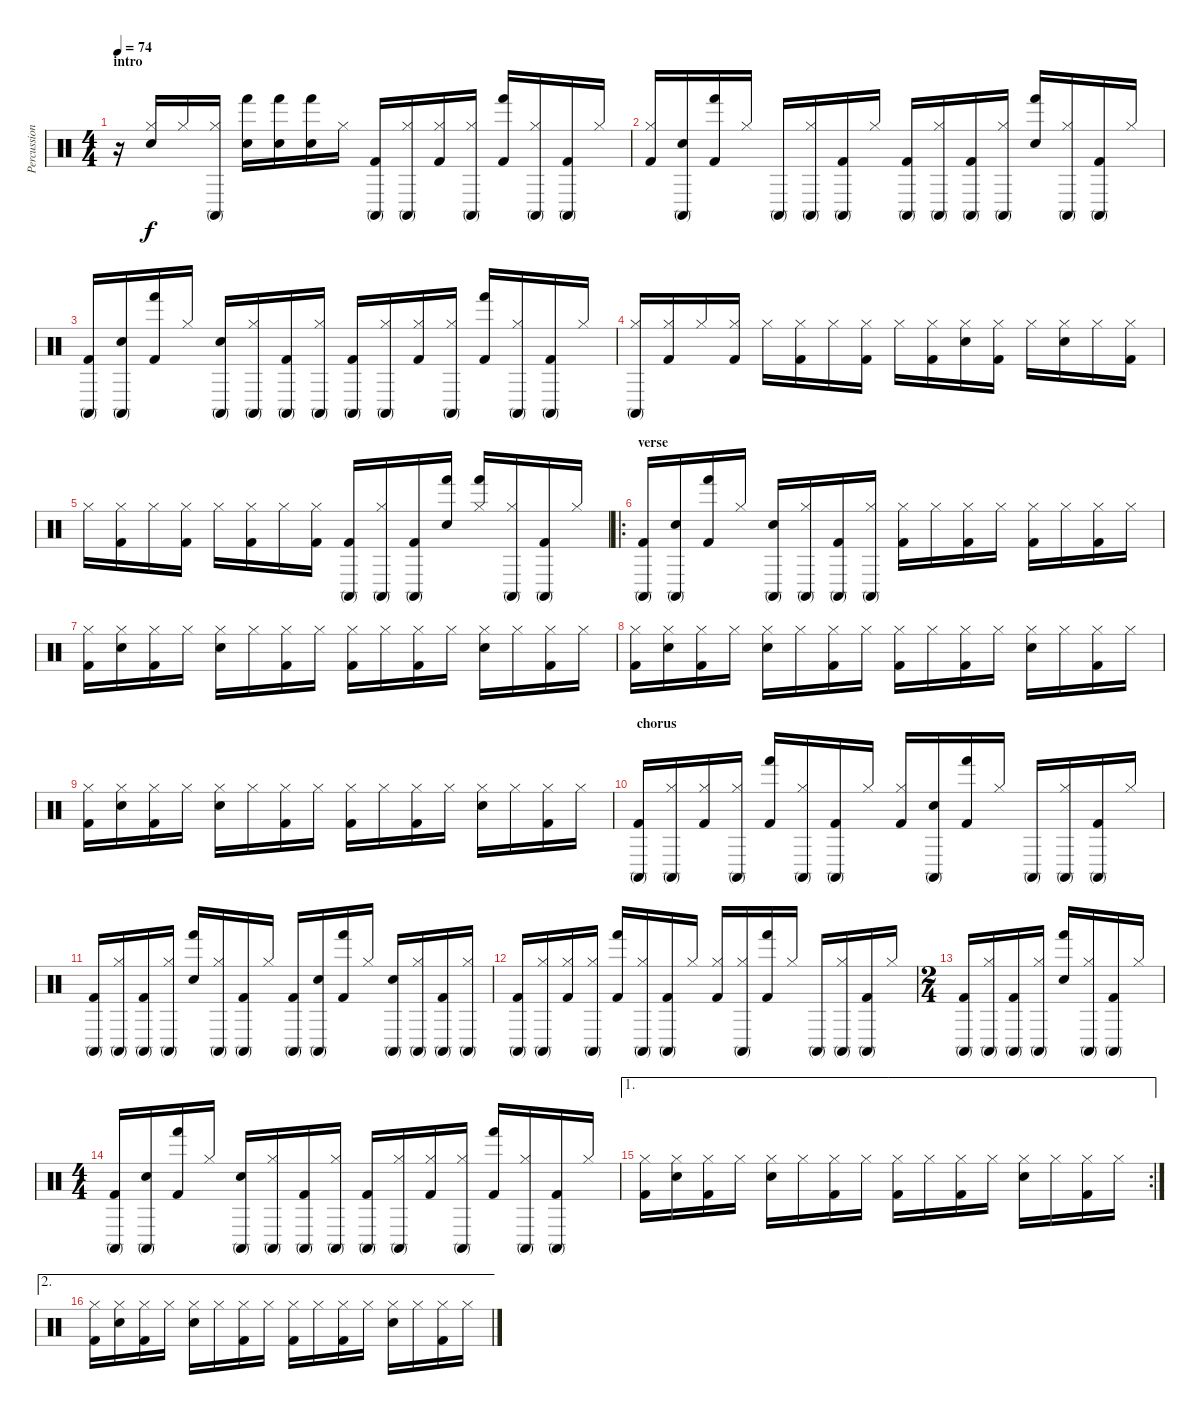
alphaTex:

\track ("Percussions" "Percussion") {instrument percussion}
\staff {score}
\articulation defaults
\ts (4 4)
\section ("" "intro")
\tempo 74
\clef neutral
\ks c
r.16{dy f} ("Hi-Hat (closed)" "Snare (hit) 2").16 "Hi-Hat (closed)".16 ("Hi-Hat (closed)" "Conga high (mute)").16 ("Hand (hit)" "Snare (hit) 2").16 ("Hand (hit)" "Snare (hit) 2").16 ("Hand (hit)" "Snare (hit) 2").16 "Hi-Hat (closed)".16 ("Conga high (mute)" "Kick (hit) 2").16 ("Hi-Hat (closed)" "Conga high (mute)").16 ("Hi-Hat (closed)" "Kick (hit) 2").16 ("Hi-Hat (closed)" "Conga high (mute)").16 ("Hand (hit)" "Kick (hit) 2").16 ("Hi-Hat (closed)" "Conga high (mute)").16 ("Conga high (mute)" "Kick (hit) 2").16 "Hi-Hat (closed)".16 |
("Hi-Hat (closed)" "Kick (hit) 2").16 ("Conga high (mute)" "Snare (hit) 2").16 ("Hand (hit)" "Kick (hit) 2").16 "Hi-Hat (closed)".16 "Conga high (mute)".16 ("Conga high (mute)" "Hi-Hat (closed)").16 ("Conga high (mute)" "Kick (hit) 2").16 "Hi-Hat (closed)".16 ("Conga high (mute)" "Kick (hit) 2").16 ("Hi-Hat (closed)" "Conga high (mute)").16 ("Conga high (mute)" "Kick (hit) 2").16 ("Conga high (mute)" "Hi-Hat (closed)").16 ("Hand (hit)" "Snare (hit) 2").16 ("Conga high (mute)" "Hi-Hat (closed)").16 ("Conga high (mute)" "Kick (hit) 2").16 "Hi-Hat (closed)".16 |
("Conga high (mute)" "Kick (hit) 2").16 ("Conga high (mute)" "Snare (hit) 2").16 ("Hand (hit)" "Kick (hit) 2").16 "Hi-Hat (closed)".16 ("Conga high (mute)" "Snare (hit) 2").16 ("Conga high (mute)" "Hi-Hat (closed)").16 ("Conga high (mute)" "Kick (hit) 2").16 ("Hi-Hat (closed)" "Conga high (mute)").16 ("Conga high (mute)" "Kick (hit) 2").16 ("Conga high (mute)" "Hi-Hat (closed)").16 ("Hi-Hat (closed)" "Kick (hit) 2").16 ("Conga high (mute)" "Hi-Hat (closed)").16 ("Hand (hit)" "Kick (hit) 2").16 ("Conga high (mute)" "Hi-Hat (closed)").16 ("Conga high (mute)" "Kick (hit) 2").16 "Hi-Hat (closed)".16 |
("Conga high (mute)" "Hi-Hat (closed)").16 ("Hi-Hat (closed)" "Kick (hit) 2").16 "Hi-Hat (closed)".16 ("Hi-Hat (closed)" "Kick (hit) 2").16 "Hi-Hat (closed)".16 ("Hi-Hat (closed)" "Kick (hit) 2").16 "Hi-Hat (closed)".16 ("Hi-Hat (closed)" "Kick (hit) 2").16 "Hi-Hat (closed)".16 ("Hi-Hat (closed)" "Kick (hit) 2").16 ("Hi-Hat (closed)" "Snare (hit) 2").16 ("Hi-Hat (closed)" "Kick (hit) 2").16 "Hi-Hat (closed)".16 ("Hi-Hat (closed)" "Snare (hit) 2").16 "Hi-Hat (closed)".16 ("Hi-Hat (closed)" "Kick (hit) 2").16 |
"Hi-Hat (closed)".16 ("Hi-Hat (closed)" "Kick (hit) 2").16 "Hi-Hat (closed)".16 ("Hi-Hat (closed)" "Kick (hit) 2").16 "Hi-Hat (closed)".16 ("Hi-Hat (closed)" "Kick (hit) 2").16 "Hi-Hat (closed)".16 ("Hi-Hat (closed)" "Kick (hit) 2").16 ("Conga high (mute)" "Kick (hit) 2").16 ("Conga high (mute)" "Hi-Hat (closed)").16 ("Conga high (mute)" "Kick (hit) 2").16 ("Hand (hit)" "Snare (hit) 2").16 ("Hand (hit)" "Hi-Hat (closed)").16 ("Conga high (mute)" "Hi-Hat (closed)").16 ("Conga high (mute)" "Kick (hit) 2").16 "Hi-Hat (closed)".16 |
\ro
\section ("" "verse")
("Conga high (mute)" "Kick (hit) 2").16 ("Conga high (mute)" "Snare (hit) 2").16 ("Hand (hit)" "Kick (hit) 2").16 "Hi-Hat (closed)".16 ("Conga high (mute)" "Snare (hit) 2").16 ("Hi-Hat (closed)" "Conga high (mute)").16 ("Conga high (mute)" "Kick (hit) 2").16 ("Conga high (mute)" "Hi-Hat (closed)").16 ("Hi-Hat (closed)" "Kick (hit) 2").16 "Hi-Hat (closed)".16 ("Hi-Hat (closed)" "Kick (hit) 2").16 "Hi-Hat (closed)".16 ("Hi-Hat (closed)" "Kick (hit) 2").16 "Hi-Hat (closed)".16 ("Hi-Hat (closed)" "Kick (hit) 2").16 "Hi-Hat (closed)".16 |
("Hi-Hat (closed)" "Kick (hit) 2").16 ("Hi-Hat (closed)" "Snare (hit) 2").16 ("Hi-Hat (closed)" "Kick (hit) 2").16 "Hi-Hat (closed)".16 ("Hi-Hat (closed)" "Snare (hit) 2").16 "Hi-Hat (closed)".16 ("Hi-Hat (closed)" "Kick (hit) 2").16 "Hi-Hat (closed)".16 ("Hi-Hat (closed)" "Kick (hit) 2").16 "Hi-Hat (closed)".16 ("Hi-Hat (closed)" "Kick (hit) 2").16 "Hi-Hat (closed)".16 ("Hi-Hat (closed)" "Snare (hit) 2").16 "Hi-Hat (closed)".16 ("Hi-Hat (closed)" "Kick (hit) 2").16 "Hi-Hat (closed)".16 |
("Hi-Hat (closed)" "Kick (hit) 2").16 ("Hi-Hat (closed)" "Snare (hit) 2").16 ("Hi-Hat (closed)" "Kick (hit) 2").16 "Hi-Hat (closed)".16 ("Hi-Hat (closed)" "Snare (hit) 2").16 "Hi-Hat (closed)".16 ("Hi-Hat (closed)" "Kick (hit) 2").16 "Hi-Hat (closed)".16 ("Hi-Hat (closed)" "Kick (hit) 2").16 "Hi-Hat (closed)".16 ("Hi-Hat (closed)" "Kick (hit) 2").16 "Hi-Hat (closed)".16 ("Hi-Hat (closed)" "Snare (hit) 2").16 "Hi-Hat (closed)".16 ("Hi-Hat (closed)" "Kick (hit) 2").16 "Hi-Hat (closed)".16 |
("Hi-Hat (closed)" "Kick (hit) 2").16 ("Hi-Hat (closed)" "Snare (hit) 2").16 ("Hi-Hat (closed)" "Kick (hit) 2").16 "Hi-Hat (closed)".16 ("Hi-Hat (closed)" "Snare (hit) 2").16 "Hi-Hat (closed)".16 ("Hi-Hat (closed)" "Kick (hit) 2").16 "Hi-Hat (closed)".16 ("Hi-Hat (closed)" "Kick (hit) 2").16 "Hi-Hat (closed)".16 ("Hi-Hat (closed)" "Kick (hit) 2").16 "Hi-Hat (closed)".16 ("Hi-Hat (closed)" "Snare (hit) 2").16 "Hi-Hat (closed)".16 ("Hi-Hat (closed)" "Kick (hit) 2").16 "Hi-Hat (closed)".16 |
\section ("" " chorus")
("Conga high (mute)" "Kick (hit) 2").16 ("Conga high (mute)" "Hi-Hat (closed)").16 ("Hi-Hat (closed)" "Kick (hit) 2").16 ("Conga high (mute)" "Hi-Hat (closed)").16 ("Hand (hit)" "Kick (hit) 2").16 ("Conga high (mute)" "Hi-Hat (closed)").16 ("Conga high (mute)" "Kick (hit) 2").16 "Hi-Hat (closed)".16 ("Hi-Hat (closed)" "Kick (hit) 2").16 ("Conga high (mute)" "Snare (hit) 2").16 ("Hand (hit)" "Kick (hit) 2").16 "Hi-Hat (closed)".16 "Conga high (mute)".16 ("Conga high (mute)" "Hi-Hat (closed)").16 ("Conga high (mute)" "Kick (hit) 2").16 "Hi-Hat (closed)".16 |
("Conga high (mute)" "Kick (hit) 2").16 ("Conga high (mute)" "Hi-Hat (closed)").16 ("Conga high (mute)" "Kick (hit) 2").16 ("Conga high (mute)" "Hi-Hat (closed)").16 ("Hand (hit)" "Snare (hit) 2").16 ("Conga high (mute)" "Hi-Hat (closed)").16 ("Conga high (mute)" "Kick (hit) 2").16 "Hi-Hat (closed)".16 ("Conga high (mute)" "Kick (hit) 2").16 ("Conga high (mute)" "Snare (hit) 2").16 ("Hand (hit)" "Kick (hit) 2").16 "Hi-Hat (closed)".16 ("Conga high (mute)" "Snare (hit) 2").16 ("Conga high (mute)" "Hi-Hat (closed)").16 ("Conga high (mute)" "Kick (hit) 2").16 ("Conga high (mute)" "Hi-Hat (closed)").16 |
("Conga high (mute)" "Kick (hit) 2").16 ("Conga high (mute)" "Hi-Hat (closed)").16 ("Hi-Hat (closed)" "Kick (hit) 2").16 ("Conga high (mute)" "Hi-Hat (closed)").16 ("Hand (hit)" "Kick (hit) 2").16 ("Conga high (mute)" "Hi-Hat (closed)").16 ("Conga high (mute)" "Kick (hit) 2").16 "Hi-Hat (closed)".16 ("Hi-Hat (closed)" "Kick (hit) 2").16 ("Conga high (mute)" "Hi-Hat (closed)").16 ("Hand (hit)" "Kick (hit) 2").16 "Hi-Hat (closed)".16 "Conga high (mute)".16 ("Conga high (mute)" "Hi-Hat (closed)").16 ("Conga high (mute)" "Kick (hit) 2").16 "Hi-Hat (closed)".16 |
\ts (2 4)
("Conga high (mute)" "Kick (hit) 2").16 ("Conga high (mute)" "Hi-Hat (closed)").16 ("Conga high (mute)" "Kick (hit) 2").16 ("Conga high (mute)" "Hi-Hat (closed)").16 ("Hand (hit)" "Snare (hit) 2").16 ("Conga high (mute)" "Hi-Hat (closed)").16 ("Conga high (mute)" "Kick (hit) 2").16 "Hi-Hat (closed)".16 |
\ts (4 4)
("Conga high (mute)" "Kick (hit) 2").16 ("Conga high (mute)" "Snare (hit) 2").16 ("Hand (hit)" "Kick (hit) 2").16 "Hi-Hat (closed)".16 ("Conga high (mute)" "Snare (hit) 2").16 ("Conga high (mute)" "Hi-Hat (closed)").16 ("Conga high (mute)" "Kick (hit) 2").16 ("Conga high (mute)" "Hi-Hat (closed)").16 ("Conga high (mute)" "Kick (hit) 2").16 ("Conga high (mute)" "Hi-Hat (closed)").16 ("Hi-Hat (closed)" "Kick (hit) 2").16 ("Conga high (mute)" "Hi-Hat (closed)").16 ("Hand (hit)" "Kick (hit) 2").16 ("Conga high (mute)" "Hi-Hat (closed)").16 ("Conga high (mute)" "Kick (hit) 2").16 "Hi-Hat (closed)".16 |
\ae 1
\rc 2
("Hi-Hat (closed)" "Kick (hit) 2").16 ("Hi-Hat (closed)" "Snare (hit) 2").16 ("Hi-Hat (closed)" "Kick (hit) 2").16 "Hi-Hat (closed)".16 ("Hi-Hat (closed)" "Snare (hit) 2").16 "Hi-Hat (closed)".16 ("Hi-Hat (closed)" "Kick (hit) 2").16 "Hi-Hat (closed)".16 ("Hi-Hat (closed)" "Kick (hit) 2").16 "Hi-Hat (closed)".16 ("Hi-Hat (closed)" "Kick (hit) 2").16 "Hi-Hat (closed)".16 ("Hi-Hat (closed)" "Snare (hit) 2").16 "Hi-Hat (closed)".16 ("Hi-Hat (closed)" "Kick (hit) 2").16 "Hi-Hat (closed)".16 |
\ae 2
("Hi-Hat (closed)" "Kick (hit) 2").16 ("Hi-Hat (closed)" "Snare (hit) 2").16 ("Hi-Hat (closed)" "Kick (hit) 2").16 "Hi-Hat (closed)".16 ("Hi-Hat (closed)" "Snare (hit) 2").16 "Hi-Hat (closed)".16 ("Hi-Hat (closed)" "Kick (hit) 2").16 "Hi-Hat (closed)".16 ("Hi-Hat (closed)" "Kick (hit) 2").16 "Hi-Hat (closed)".16 ("Hi-Hat (closed)" "Kick (hit) 2").16 "Hi-Hat (closed)".16 ("Hi-Hat (closed)" "Snare (hit) 2").16 "Hi-Hat (closed)".16 ("Hi-Hat (closed)" "Kick (hit) 2").16 "Hi-Hat (closed)".16
